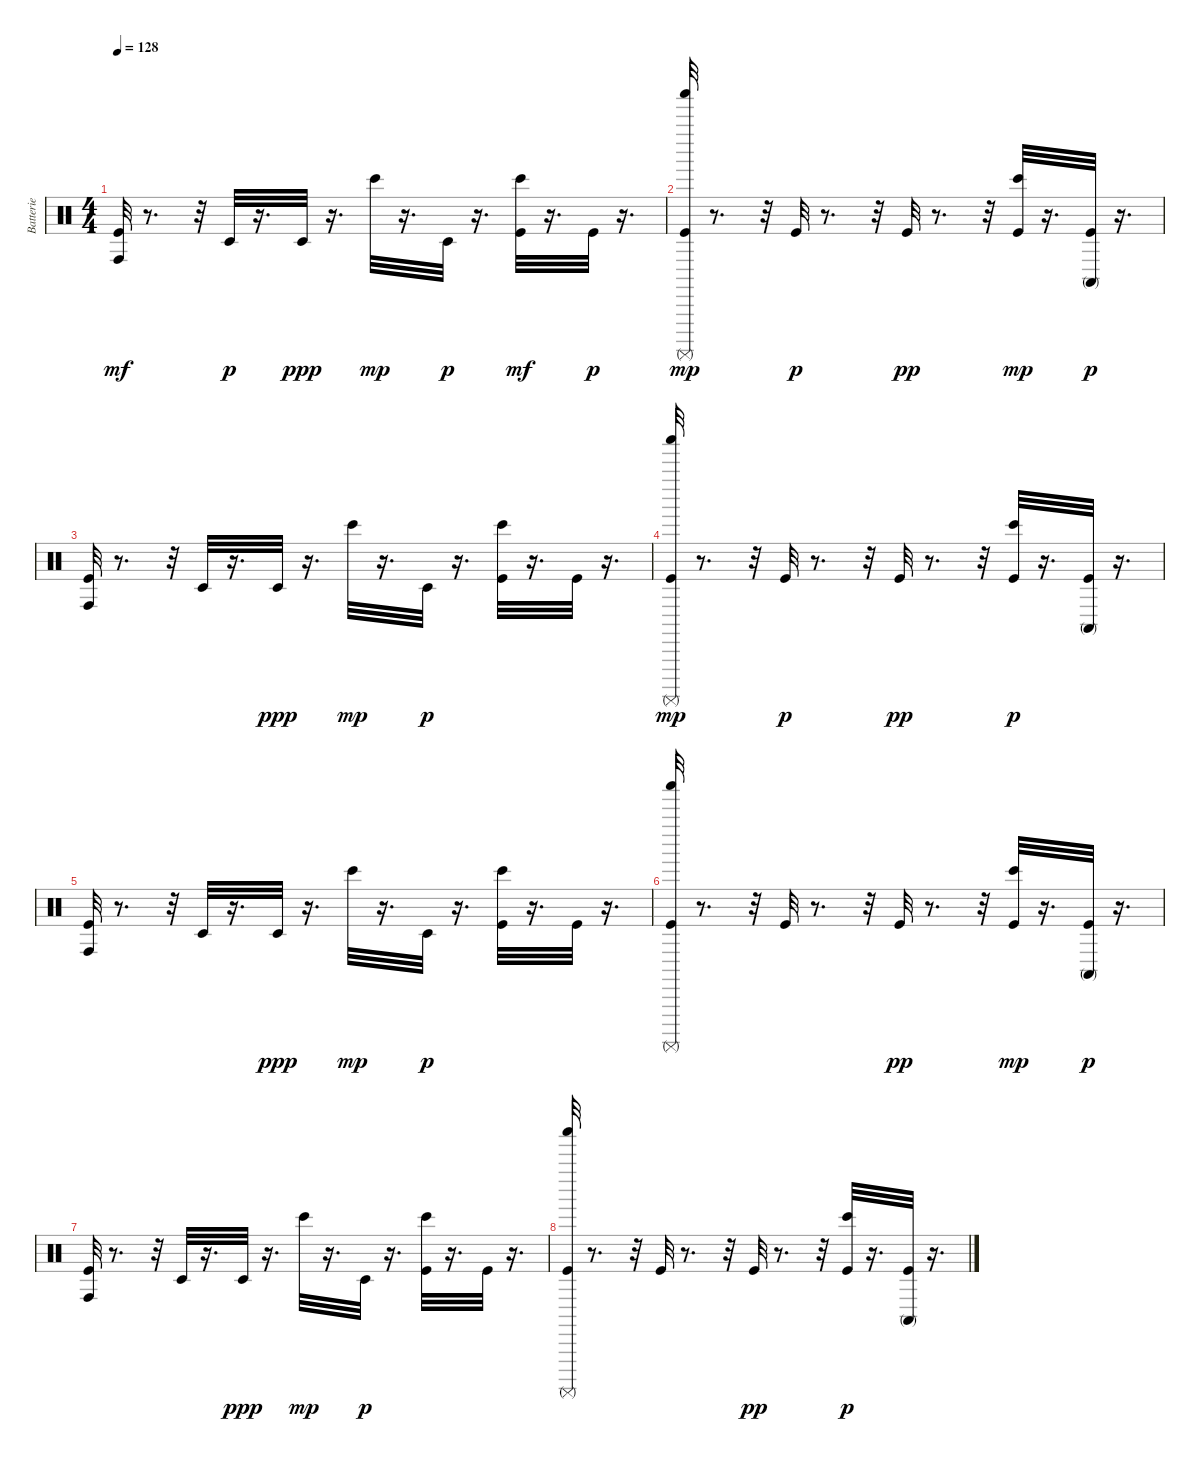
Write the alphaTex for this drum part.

\track ("Batterie" "Batterie") {instrument percussion}
\staff {score}
\articulation defaults
\ts (4 4)
\tempo 128
\clef neutral
\ks c
("Kick (hit)" "Conga high (hit)").32{dy mf} r.8{d} r.32 "Timbale low (hit)".32{dy p} r.16{d} "Timbale low (hit)".32{dy ppp} r.16{d} "Bongo High (hit)".32{dy mp} r.16{d} "Timbale low (hit)".32{dy p} r.16{d} ("Kick (hit)" "Bongo High (hit)").32{dy mf} r.16{d} "Kick (hit)".32{dy p} r.16{d} |
("Kick (hit)" "Shaker (hit)" "Surdo (mute)").32{dy mp} r.8{d} r.32 "Kick (hit)".32{dy p} r.8{d} r.32 "Kick (hit)".32{dy pp} r.8{d} r.32 ("Kick (hit)" "Bongo High (hit)").32{dy mp} r.16{d} ("Conga high (mute)" "Kick (hit)").32{dy p} r.16{d} |
("Conga high (hit)" "Kick (hit)").32 r.8{d} r.32 "Timbale low (hit)".32 r.16{d} "Timbale low (hit)".32{dy ppp} r.16{d} "Bongo High (hit)".32{dy mp} r.16{d} "Timbale low (hit)".32{dy p} r.16{d} ("Bongo High (hit)" "Kick (hit)").32 r.16{d} "Kick (hit)".32 r.16{d} |
("Surdo (mute)" "Kick (hit)" "Shaker (hit)").32{dy mp} r.8{d} r.32 "Kick (hit)".32{dy p} r.8{d} r.32 "Kick (hit)".32{dy pp} r.8{d} r.32 ("Bongo High (hit)" "Kick (hit)").32{dy p} r.16{d} ("Kick (hit)" "Conga high (mute)").32 r.16{d} |
("Conga high (hit)" "Kick (hit)").32 r.8{d} r.32 "Timbale low (hit)".32 r.16{d} "Timbale low (hit)".32{dy ppp} r.16{d} "Bongo High (hit)".32{dy mp} r.16{d} "Timbale low (hit)".32{dy p} r.16{d} ("Bongo High (hit)" "Kick (hit)").32 r.16{d} "Kick (hit)".32 r.16{d} |
("Shaker (hit)" "Surdo (mute)" "Kick (hit)").32 r.8{d} r.32 "Kick (hit)".32 r.8{d} r.32 "Kick (hit)".32{dy pp} r.8{d} r.32 ("Kick (hit)" "Bongo High (hit)").32{dy mp} r.16{d} ("Kick (hit)" "Conga high (mute)").32{dy p} r.16{d} |
("Conga high (hit)" "Kick (hit)").32 r.8{d} r.32 "Timbale low (hit)".32 r.16{d} "Timbale low (hit)".32{dy ppp} r.16{d} "Bongo High (hit)".32{dy mp} r.16{d} "Timbale low (hit)".32{dy p} r.16{d} ("Bongo High (hit)" "Kick (hit)").32 r.16{d} "Kick (hit)".32 r.16{d} |
("Shaker (hit)" "Surdo (mute)" "Kick (hit)").32 r.8{d} r.32 "Kick (hit)".32 r.8{d} r.32 "Kick (hit)".32{dy pp} r.8{d} r.32 ("Bongo High (hit)" "Kick (hit)").32{dy p} r.16{d} ("Kick (hit)" "Conga high (mute)").32 r.16{d}
